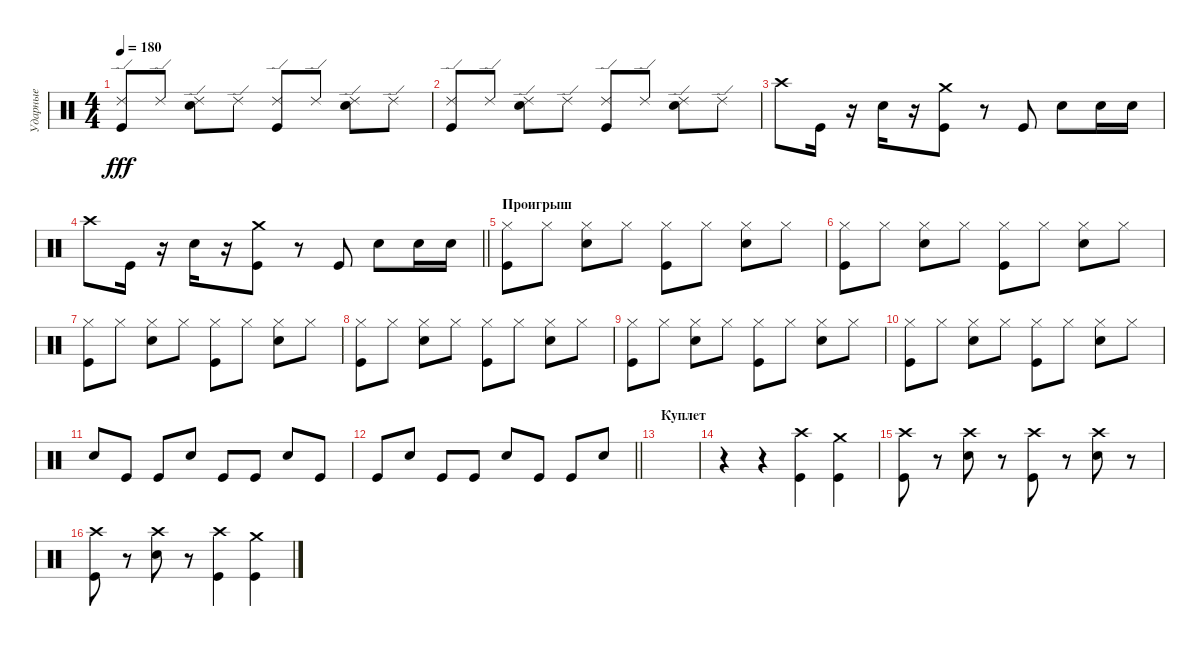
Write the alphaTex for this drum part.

\track ("Ударные" "Ударные") {instrument percussion}
\staff {score}
\articulation defaults
\ts (4 4)
\tempo 180
\clef neutral
\ks c
("Ride (edge) 2" "Kick (hit)").8{dy fff} "Ride (edge) 2".8 ("Ride (edge) 2" "Electric Snare (hit)").8 "Ride (edge) 2".8 ("Ride (edge) 2" "Kick (hit)").8 "Ride (edge) 2".8 ("Ride (edge) 2" "Electric Snare (hit)").8 "Ride (edge) 2".8 |
("Ride (edge) 2" "Kick (hit)").8 "Ride (edge) 2".8 ("Ride (edge) 2" "Electric Snare (hit)").8 "Ride (edge) 2".8 ("Ride (edge) 2" "Kick (hit)").8 "Ride (edge) 2".8 ("Ride (edge) 2" "Electric Snare (hit)").8 "Ride (edge) 2".8 |
"Crash high (hit)".8 "Kick (hit)".16 r.16 "Electric Snare (hit)".16 r.16 ("Crash medium (hit)" "Kick (hit)").8 r.8 "Kick (hit)".8 "Electric Snare (hit)".8 "Electric Snare (hit)".16 "Electric Snare (hit)".16 |
\barLineRight lightlight "Crash high (hit)".8 "Kick (hit)".16
r.16 "Electric Snare (hit)".16 r.16 ("Crash medium (hit)" "Kick (hit)").8 r.8 "Kick (hit)".8 "Electric Snare (hit)".8 "Electric Snare (hit)".16 "Electric Snare (hit)".16 |
\section ("" "Проигрыш")
("Hi-Hat (closed)" "Kick (hit)").8 "Hi-Hat (closed)".8 ("Hi-Hat (closed)" "Electric Snare (hit)").8 "Hi-Hat (closed)".8 ("Hi-Hat (closed)" "Kick (hit)").8 "Hi-Hat (closed)".8 ("Hi-Hat (closed)" "Electric Snare (hit)").8 "Hi-Hat (closed)".8 |
("Hi-Hat (closed)" "Kick (hit)").8 "Hi-Hat (closed)".8 ("Hi-Hat (closed)" "Electric Snare (hit)").8 "Hi-Hat (closed)".8 ("Hi-Hat (closed)" "Kick (hit)").8 "Hi-Hat (closed)".8 ("Hi-Hat (closed)" "Electric Snare (hit)").8 "Hi-Hat (closed)".8 |
("Hi-Hat (closed)" "Kick (hit)").8 "Hi-Hat (closed)".8 ("Hi-Hat (closed)" "Electric Snare (hit)").8 "Hi-Hat (closed)".8 ("Hi-Hat (closed)" "Kick (hit)").8 "Hi-Hat (closed)".8 ("Hi-Hat (closed)" "Electric Snare (hit)").8 "Hi-Hat (closed)".8 |
("Hi-Hat (closed)" "Kick (hit)").8 "Hi-Hat (closed)".8 ("Hi-Hat (closed)" "Electric Snare (hit)").8 "Hi-Hat (closed)".8 ("Hi-Hat (closed)" "Kick (hit)").8 "Hi-Hat (closed)".8 ("Hi-Hat (closed)" "Electric Snare (hit)").8 "Hi-Hat (closed)".8 |
("Hi-Hat (closed)" "Kick (hit)").8 "Hi-Hat (closed)".8 ("Hi-Hat (closed)" "Electric Snare (hit)").8 "Hi-Hat (closed)".8 ("Hi-Hat (closed)" "Kick (hit)").8 "Hi-Hat (closed)".8 ("Hi-Hat (closed)" "Electric Snare (hit)").8 "Hi-Hat (closed)".8 |
("Hi-Hat (closed)" "Kick (hit)").8 "Hi-Hat (closed)".8 ("Hi-Hat (closed)" "Electric Snare (hit)").8 "Hi-Hat (closed)".8 ("Hi-Hat (closed)" "Kick (hit)").8 "Hi-Hat (closed)".8 ("Hi-Hat (closed)" "Electric Snare (hit)").8 "Hi-Hat (closed)".8 |
"Electric Snare (hit)".8 "Kick (hit)".8 "Kick (hit)".8 "Electric Snare (hit)".8 "Kick (hit)".8 "Kick (hit)".8 "Electric Snare (hit)".8 "Kick (hit)".8 |
\barLineRight lightlight "Kick (hit)".8 "Electric Snare (hit)".8 "Kick (hit)".8 "Kick (hit)".8 "Electric Snare (hit)".8 "Kick (hit)".8 "Kick (hit)".8 "Electric Snare (hit)".8
|
\section ("" "Куплет")
|
r.4 r.4 ("Crash high (hit)" "Kick (hit)").4 ("Crash medium (hit)" "Kick (hit)").4 |
("Crash high (hit)" "Kick (hit)").8 r.8 ("Crash high (hit)" "Electric Snare (hit)").8 r.8 ("Crash high (hit)" "Kick (hit)").8 r.8 ("Crash high (hit)" "Electric Snare (hit)").8 r.8 |
("Kick (hit)" "Crash high (hit)").8 r.8 ("Electric Snare (hit)" "Crash high (hit)").8 r.8 ("Crash high (hit)" "Kick (hit)").4 ("Kick (hit)" "Crash medium (hit)").4
